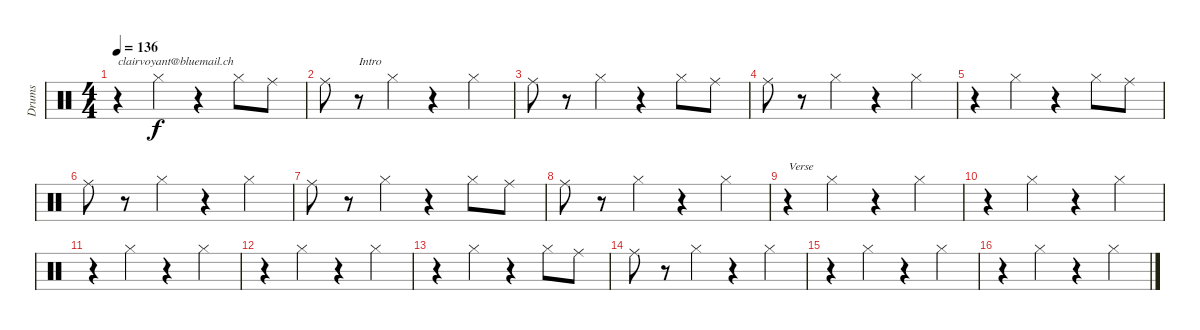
\track ("Drums" "Drums") {instrument percussion}
\staff {score}
\articulation defaults
\ts (4 4)
\tempo 136
\clef neutral
\ks c
r.4{txt "clairvoyant@bluemail.ch" dy f} "Hi-Hat (closed)".4 r.4 "Hi-Hat (closed)".8 "Ride (middle)".8 |
"Ride (middle)".8 r.8{txt "Intro"} "Hi-Hat (closed)".4 r.4 "Hi-Hat (closed)".4 |
"Ride (middle)".8 r.8 "Hi-Hat (closed)".4 r.4 "Hi-Hat (closed)".8 "Ride (middle)".8 |
"Ride (middle)".8 r.8 "Hi-Hat (closed)".4 r.4 "Hi-Hat (closed)".4 |
r.4 "Hi-Hat (closed)".4 r.4 "Hi-Hat (closed)".8 "Ride (middle)".8 |
"Ride (middle)".8 r.8 "Hi-Hat (closed)".4 r.4 "Hi-Hat (closed)".4 |
"Ride (middle)".8 r.8 "Hi-Hat (closed)".4 r.4 "Hi-Hat (closed)".8 "Ride (middle)".8 |
"Ride (middle)".8 r.8 "Hi-Hat (closed)".4 r.4 "Hi-Hat (closed)".4 |
r.4{txt "Verse"} "Hi-Hat (closed)".4 r.4 "Hi-Hat (closed)".4 |
r.4 "Hi-Hat (closed)".4 r.4 "Hi-Hat (closed)".4 |
r.4 "Hi-Hat (closed)".4 r.4 "Hi-Hat (closed)".4 |
r.4 "Hi-Hat (closed)".4 r.4 "Hi-Hat (closed)".4 |
r.4 "Hi-Hat (closed)".4 r.4 "Hi-Hat (closed)".8 "Ride (middle)".8 |
"Ride (middle)".8 r.8 "Hi-Hat (closed)".4 r.4 "Hi-Hat (closed)".4 |
r.4 "Hi-Hat (closed)".4 r.4 "Hi-Hat (closed)".4 |
r.4 "Hi-Hat (closed)".4 r.4 "Hi-Hat (closed)".4
